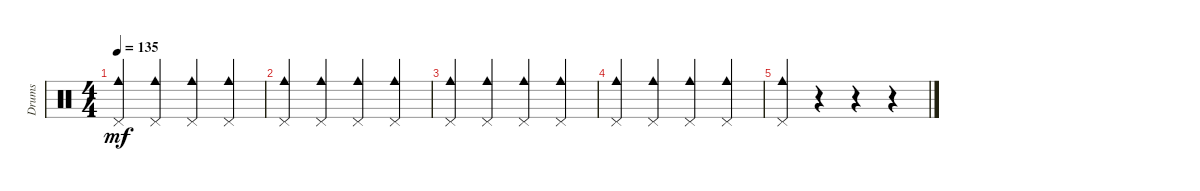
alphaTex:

\track ("Drums" "Drums") {instrument percussion}
\staff {score}
\articulation defaults
\ts (4 4)
\tempo 135
\clef neutral
\ks c
("Cowbell medium (hit)" "Pedal Hi-Hat (hit)").4{dy mf} ("Cowbell medium (hit)" "Pedal Hi-Hat (hit)").4 ("Cowbell medium (hit)" "Pedal Hi-Hat (hit)").4 ("Cowbell medium (hit)" "Pedal Hi-Hat (hit)").4 |
("Cowbell medium (hit)" "Pedal Hi-Hat (hit)").4 ("Cowbell medium (hit)" "Pedal Hi-Hat (hit)").4 ("Cowbell medium (hit)" "Pedal Hi-Hat (hit)").4 ("Cowbell medium (hit)" "Pedal Hi-Hat (hit)").4 |
("Cowbell medium (hit)" "Pedal Hi-Hat (hit)").4 ("Cowbell medium (hit)" "Pedal Hi-Hat (hit)").4 ("Cowbell medium (hit)" "Pedal Hi-Hat (hit)").4 ("Cowbell medium (hit)" "Pedal Hi-Hat (hit)").4 |
("Cowbell medium (hit)" "Pedal Hi-Hat (hit)").4 ("Cowbell medium (hit)" "Pedal Hi-Hat (hit)").4 ("Cowbell medium (hit)" "Pedal Hi-Hat (hit)").4 ("Cowbell medium (hit)" "Pedal Hi-Hat (hit)").4 |
("Cowbell medium (hit)" "Pedal Hi-Hat (hit)").4 r.4 r.4 r.4
